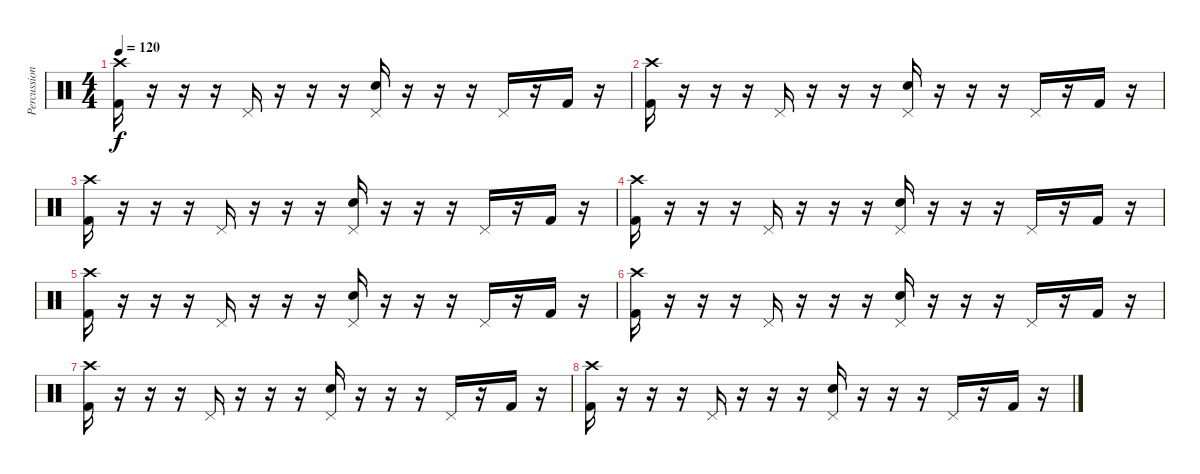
\track ("Percussion" "Percussion") {instrument percussion}
\staff {score}
\articulation defaults
\ts (4 4)
\tempo 120
\clef neutral
\ks c
("Kick (hit) 2" "Crash high (hit)").16{dy f} r.16 r.16 r.16 "Pedal Hi-Hat (hit)".16 r.16 r.16 r.16 ("Electric Snare (hit)" "Pedal Hi-Hat (hit)").16 r.16 r.16 r.16 "Pedal Hi-Hat (hit)".16 r.16 "Kick (hit) 2".16 r.16 |
("Kick (hit) 2" "Crash high (hit)").16 r.16 r.16 r.16 "Pedal Hi-Hat (hit)".16 r.16 r.16 r.16 ("Electric Snare (hit)" "Pedal Hi-Hat (hit)").16 r.16 r.16 r.16 "Pedal Hi-Hat (hit)".16 r.16 "Kick (hit) 2".16 r.16 |
("Kick (hit) 2" "Crash high (hit)").16 r.16 r.16 r.16 "Pedal Hi-Hat (hit)".16 r.16 r.16 r.16 ("Electric Snare (hit)" "Pedal Hi-Hat (hit)").16 r.16 r.16 r.16 "Pedal Hi-Hat (hit)".16 r.16 "Kick (hit) 2".16 r.16 |
("Kick (hit) 2" "Crash high (hit)").16 r.16 r.16 r.16 "Pedal Hi-Hat (hit)".16 r.16 r.16 r.16 ("Electric Snare (hit)" "Pedal Hi-Hat (hit)").16 r.16 r.16 r.16 "Pedal Hi-Hat (hit)".16 r.16 "Kick (hit) 2".16 r.16 |
("Kick (hit) 2" "Crash high (hit)").16 r.16 r.16 r.16 "Pedal Hi-Hat (hit)".16 r.16 r.16 r.16 ("Electric Snare (hit)" "Pedal Hi-Hat (hit)").16 r.16 r.16 r.16 "Pedal Hi-Hat (hit)".16 r.16 "Kick (hit) 2".16 r.16 |
("Kick (hit) 2" "Crash high (hit)").16 r.16 r.16 r.16 "Pedal Hi-Hat (hit)".16 r.16 r.16 r.16 ("Electric Snare (hit)" "Pedal Hi-Hat (hit)").16 r.16 r.16 r.16 "Pedal Hi-Hat (hit)".16 r.16 "Kick (hit) 2".16 r.16 |
("Kick (hit) 2" "Crash high (hit)").16 r.16 r.16 r.16 "Pedal Hi-Hat (hit)".16 r.16 r.16 r.16 ("Electric Snare (hit)" "Pedal Hi-Hat (hit)").16 r.16 r.16 r.16 "Pedal Hi-Hat (hit)".16 r.16 "Kick (hit) 2".16 r.16 |
("Kick (hit) 2" "Crash high (hit)").16 r.16 r.16 r.16 "Pedal Hi-Hat (hit)".16 r.16 r.16 r.16 ("Electric Snare (hit)" "Pedal Hi-Hat (hit)").16 r.16 r.16 r.16 "Pedal Hi-Hat (hit)".16 r.16 "Kick (hit) 2".16 r.16
